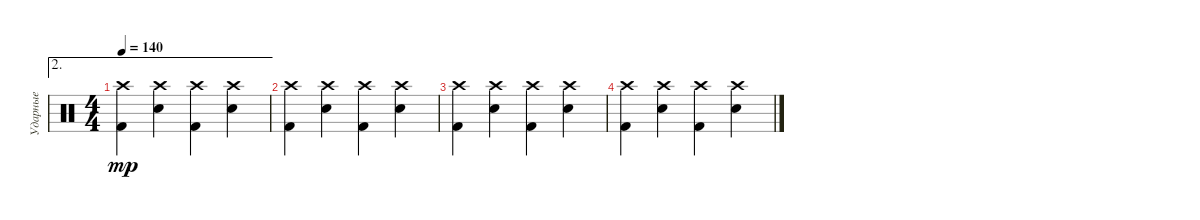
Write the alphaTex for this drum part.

\track ("Ударные" "Ударные") {instrument percussion}
\staff {score}
\articulation defaults
\ae 2
\ts (4 4)
\tempo 140
\clef neutral
\ks c
("Crash high (hit)" "Kick (hit) 2").4{dy mp} ("Crash high (hit)" "Snare (hit) 2").4 ("Crash high (hit)" "Kick (hit) 2").4 ("Crash high (hit)" "Snare (hit) 2").4 |
("Crash high (hit)" "Kick (hit) 2").4 ("Crash high (hit)" "Snare (hit) 2").4 ("Crash high (hit)" "Kick (hit) 2").4 ("Crash high (hit)" "Snare (hit) 2").4 |
("Crash high (hit)" "Kick (hit) 2").4 ("Crash high (hit)" "Snare (hit) 2").4 ("Crash high (hit)" "Kick (hit) 2").4 ("Crash high (hit)" "Snare (hit) 2").4 |
("Crash high (hit)" "Kick (hit) 2").4 ("Crash high (hit)" "Snare (hit) 2").4 ("Crash high (hit)" "Kick (hit) 2").4 ("Crash high (hit)" "Snare (hit) 2").4
